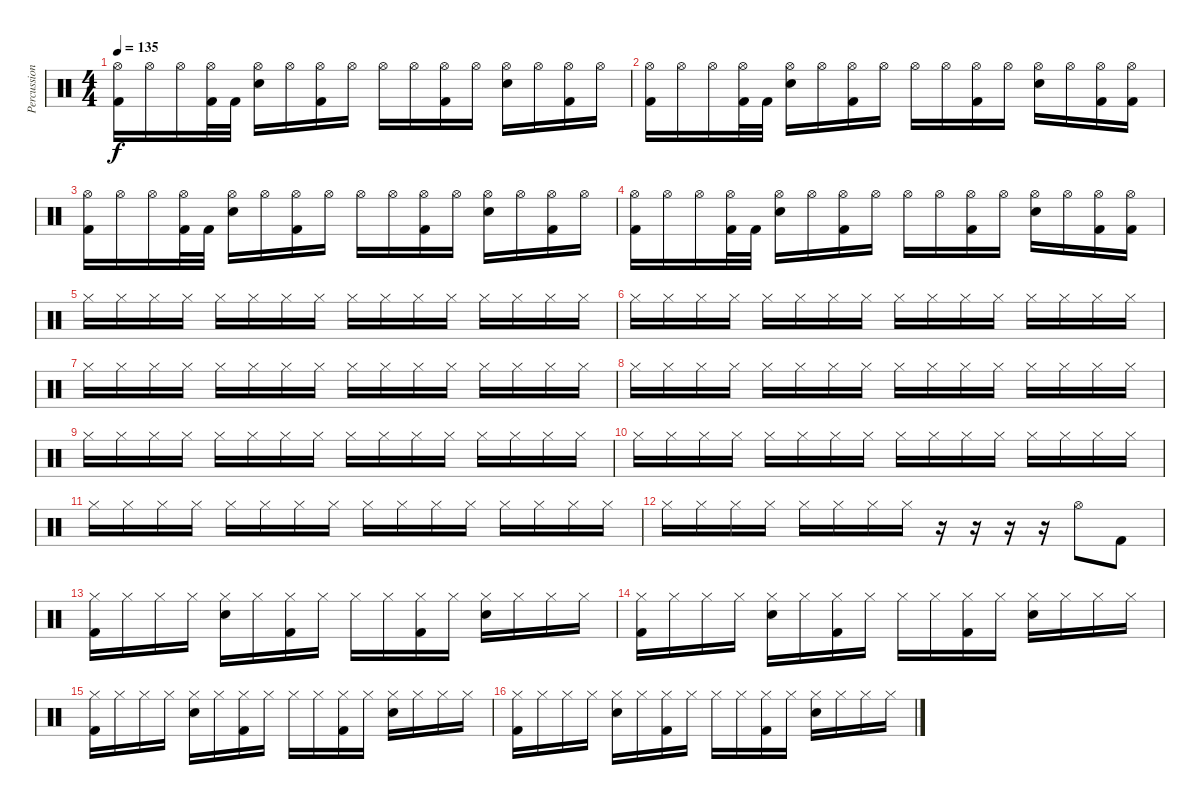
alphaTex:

\track ("Percussion" "Percussion") {instrument percussion}
\staff {score}
\articulation defaults
\ts (4 4)
\tempo 135
\clef neutral
\ks c
("Hi-Hat (open)" "Kick (hit) 2").16{dy f} "Hi-Hat (open)".16 "Hi-Hat (open)".16 ("Hi-Hat (open)" "Kick (hit) 2").32 "Kick (hit) 2".32 ("Hi-Hat (open)" "Snare (hit) 2").16 "Hi-Hat (open)".16 ("Hi-Hat (open)" "Kick (hit) 2").16 "Hi-Hat (open)".16 "Hi-Hat (open)".16 "Hi-Hat (open)".16 ("Hi-Hat (open)" "Kick (hit) 2").16 "Hi-Hat (open)".16 ("Hi-Hat (open)" "Snare (hit) 2").16 "Hi-Hat (open)".16 ("Hi-Hat (open)" "Kick (hit) 2").16 "Hi-Hat (open)".16 |
("Hi-Hat (open)" "Kick (hit) 2").16 "Hi-Hat (open)".16 "Hi-Hat (open)".16 ("Hi-Hat (open)" "Kick (hit) 2").32 "Kick (hit) 2".32 ("Hi-Hat (open)" "Snare (hit) 2").16 "Hi-Hat (open)".16 ("Hi-Hat (open)" "Kick (hit) 2").16 "Hi-Hat (open)".16 "Hi-Hat (open)".16 "Hi-Hat (open)".16 ("Hi-Hat (open)" "Kick (hit) 2").16 "Hi-Hat (open)".16 ("Hi-Hat (open)" "Snare (hit) 2").16 "Hi-Hat (open)".16 ("Hi-Hat (open)" "Kick (hit) 2").16 ("Hi-Hat (open)" "Kick (hit) 2").16 |
("Hi-Hat (open)" "Kick (hit) 2").16 "Hi-Hat (open)".16 "Hi-Hat (open)".16 ("Hi-Hat (open)" "Kick (hit) 2").32 "Kick (hit) 2".32 ("Hi-Hat (open)" "Snare (hit) 2").16 "Hi-Hat (open)".16 ("Hi-Hat (open)" "Kick (hit) 2").16 "Hi-Hat (open)".16 "Hi-Hat (open)".16 "Hi-Hat (open)".16 ("Hi-Hat (open)" "Kick (hit) 2").16 "Hi-Hat (open)".16 ("Hi-Hat (open)" "Snare (hit) 2").16 "Hi-Hat (open)".16 ("Hi-Hat (open)" "Kick (hit) 2").16 "Hi-Hat (open)".16 |
("Hi-Hat (open)" "Kick (hit) 2").16 "Hi-Hat (open)".16 "Hi-Hat (open)".16 ("Hi-Hat (open)" "Kick (hit) 2").32 "Kick (hit) 2".32 ("Hi-Hat (open)" "Snare (hit) 2").16 "Hi-Hat (open)".16 ("Hi-Hat (open)" "Kick (hit) 2").16 "Hi-Hat (open)".16 "Hi-Hat (open)".16 "Hi-Hat (open)".16 ("Hi-Hat (open)" "Kick (hit) 2").16 "Hi-Hat (open)".16 ("Hi-Hat (open)" "Snare (hit) 2").16 "Hi-Hat (open)".16 ("Hi-Hat (open)" "Kick (hit) 2").16 ("Hi-Hat (open)" "Kick (hit) 2").16 |
"Hi-Hat (closed)".16 "Hi-Hat (closed)".16 "Hi-Hat (closed)".16 "Hi-Hat (closed)".16 "Hi-Hat (closed)".16 "Hi-Hat (closed)".16 "Hi-Hat (closed)".16 "Hi-Hat (closed)".16 "Hi-Hat (closed)".16 "Hi-Hat (closed)".16 "Hi-Hat (closed)".16 "Hi-Hat (closed)".16 "Hi-Hat (closed)".16 "Hi-Hat (closed)".16 "Hi-Hat (closed)".16 "Hi-Hat (closed)".16 |
"Hi-Hat (closed)".16 "Hi-Hat (closed)".16 "Hi-Hat (closed)".16 "Hi-Hat (closed)".16 "Hi-Hat (closed)".16 "Hi-Hat (closed)".16 "Hi-Hat (closed)".16 "Hi-Hat (closed)".16 "Hi-Hat (closed)".16 "Hi-Hat (closed)".16 "Hi-Hat (closed)".16 "Hi-Hat (closed)".16 "Hi-Hat (closed)".16 "Hi-Hat (closed)".16 "Hi-Hat (closed)".16 "Hi-Hat (closed)".16 |
"Hi-Hat (closed)".16 "Hi-Hat (closed)".16 "Hi-Hat (closed)".16 "Hi-Hat (closed)".16 "Hi-Hat (closed)".16 "Hi-Hat (closed)".16 "Hi-Hat (closed)".16 "Hi-Hat (closed)".16 "Hi-Hat (closed)".16 "Hi-Hat (closed)".16 "Hi-Hat (closed)".16 "Hi-Hat (closed)".16 "Hi-Hat (closed)".16 "Hi-Hat (closed)".16 "Hi-Hat (closed)".16 "Hi-Hat (closed)".16 |
"Hi-Hat (closed)".16 "Hi-Hat (closed)".16 "Hi-Hat (closed)".16 "Hi-Hat (closed)".16 "Hi-Hat (closed)".16 "Hi-Hat (closed)".16 "Hi-Hat (closed)".16 "Hi-Hat (closed)".16 "Hi-Hat (closed)".16 "Hi-Hat (closed)".16 "Hi-Hat (closed)".16 "Hi-Hat (closed)".16 "Hi-Hat (closed)".16 "Hi-Hat (closed)".16 "Hi-Hat (closed)".16 "Hi-Hat (closed)".16 |
"Hi-Hat (closed)".16 "Hi-Hat (closed)".16 "Hi-Hat (closed)".16 "Hi-Hat (closed)".16 "Hi-Hat (closed)".16 "Hi-Hat (closed)".16 "Hi-Hat (closed)".16 "Hi-Hat (closed)".16 "Hi-Hat (closed)".16 "Hi-Hat (closed)".16 "Hi-Hat (closed)".16 "Hi-Hat (closed)".16 "Hi-Hat (closed)".16 "Hi-Hat (closed)".16 "Hi-Hat (closed)".16 "Hi-Hat (closed)".16 |
"Hi-Hat (closed)".16 "Hi-Hat (closed)".16 "Hi-Hat (closed)".16 "Hi-Hat (closed)".16 "Hi-Hat (closed)".16 "Hi-Hat (closed)".16 "Hi-Hat (closed)".16 "Hi-Hat (closed)".16 "Hi-Hat (closed)".16 "Hi-Hat (closed)".16 "Hi-Hat (closed)".16 "Hi-Hat (closed)".16 "Hi-Hat (closed)".16 "Hi-Hat (closed)".16 "Hi-Hat (closed)".16 "Hi-Hat (closed)".16 |
"Hi-Hat (closed)".16 "Hi-Hat (closed)".16 "Hi-Hat (closed)".16 "Hi-Hat (closed)".16 "Hi-Hat (closed)".16 "Hi-Hat (closed)".16 "Hi-Hat (closed)".16 "Hi-Hat (closed)".16 "Hi-Hat (closed)".16 "Hi-Hat (closed)".16 "Hi-Hat (closed)".16 "Hi-Hat (closed)".16 "Hi-Hat (closed)".16 "Hi-Hat (closed)".16 "Hi-Hat (closed)".16 "Hi-Hat (closed)".16 |
"Hi-Hat (closed)".16 "Hi-Hat (closed)".16 "Hi-Hat (closed)".16 "Hi-Hat (closed)".16 "Hi-Hat (closed)".16 "Hi-Hat (closed)".16 "Hi-Hat (closed)".16 "Hi-Hat (closed)".16 r.16 r.16 r.16 r.16 "Hi-Hat (open)".8 "Kick (hit) 2".8 |
("Hi-Hat (closed)" "Kick (hit) 2").16 "Hi-Hat (closed)".16 "Hi-Hat (closed)".16 "Hi-Hat (closed)".16 ("Hi-Hat (closed)" "Snare (hit) 2").16 "Hi-Hat (closed)".16 ("Hi-Hat (closed)" "Kick (hit) 2").16 "Hi-Hat (closed)".16 "Hi-Hat (closed)".16 "Hi-Hat (closed)".16 ("Hi-Hat (closed)" "Kick (hit) 2").16 "Hi-Hat (closed)".16 ("Hi-Hat (closed)" "Snare (hit) 2").16 "Hi-Hat (closed)".16 "Hi-Hat (closed)".16 "Hi-Hat (closed)".16 |
("Hi-Hat (closed)" "Kick (hit) 2").16 "Hi-Hat (closed)".16 "Hi-Hat (closed)".16 "Hi-Hat (closed)".16 ("Hi-Hat (closed)" "Snare (hit) 2").16 "Hi-Hat (closed)".16 ("Hi-Hat (closed)" "Kick (hit) 2").16 "Hi-Hat (closed)".16 "Hi-Hat (closed)".16 "Hi-Hat (closed)".16 ("Hi-Hat (closed)" "Kick (hit) 2").16 "Hi-Hat (closed)".16 ("Hi-Hat (closed)" "Snare (hit) 2").16 "Hi-Hat (closed)".16 "Hi-Hat (closed)".16 "Hi-Hat (closed)".16 |
("Hi-Hat (closed)" "Kick (hit) 2").16 "Hi-Hat (closed)".16 "Hi-Hat (closed)".16 "Hi-Hat (closed)".16 ("Hi-Hat (closed)" "Snare (hit) 2").16 "Hi-Hat (closed)".16 ("Hi-Hat (closed)" "Kick (hit) 2").16 "Hi-Hat (closed)".16 "Hi-Hat (closed)".16 "Hi-Hat (closed)".16 ("Hi-Hat (closed)" "Kick (hit) 2").16 "Hi-Hat (closed)".16 ("Hi-Hat (closed)" "Snare (hit) 2").16 "Hi-Hat (closed)".16 "Hi-Hat (closed)".16 "Hi-Hat (closed)".16 |
("Hi-Hat (closed)" "Kick (hit) 2").16 "Hi-Hat (closed)".16 "Hi-Hat (closed)".16 "Hi-Hat (closed)".16 ("Hi-Hat (closed)" "Snare (hit) 2").16 "Hi-Hat (closed)".16 ("Hi-Hat (closed)" "Kick (hit) 2").16 "Hi-Hat (closed)".16 "Hi-Hat (closed)".16 "Hi-Hat (closed)".16 ("Hi-Hat (closed)" "Kick (hit) 2").16 "Hi-Hat (closed)".16 ("Hi-Hat (closed)" "Snare (hit) 2").16 "Hi-Hat (closed)".16 "Hi-Hat (closed)".16 "Hi-Hat (closed)".16
